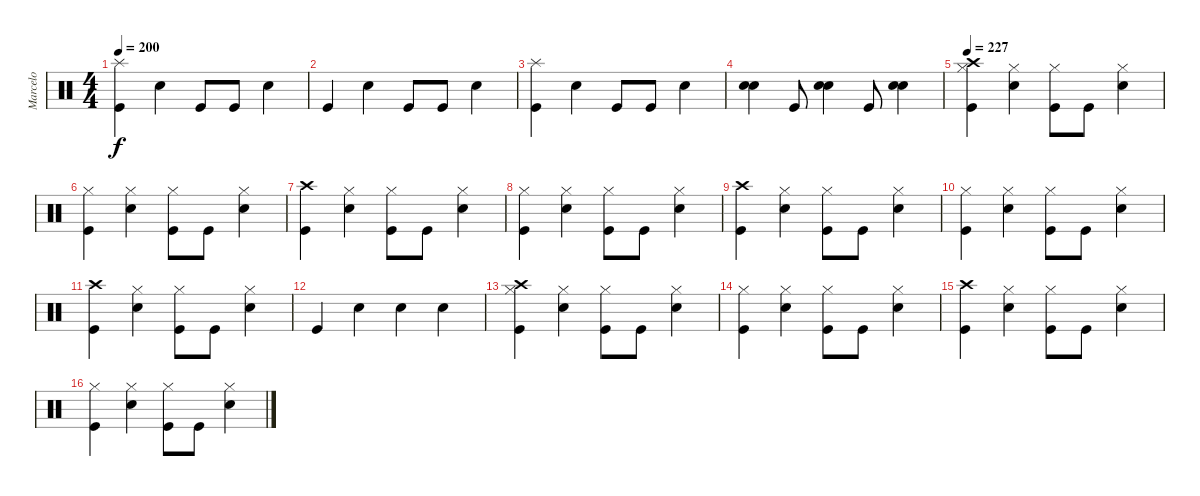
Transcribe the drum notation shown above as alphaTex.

\track ("Marcelo" "Marcelo") {instrument percussion}
\staff {score}
\articulation defaults
\ts (4 4)
\tempo 200
\clef neutral
\ks c
("Splash (hit)" "Kick (hit)").4{dy f} "Snare (hit) 2".4 "Kick (hit)".8 "Kick (hit)".8 "Snare (hit) 2".4 |
"Kick (hit)".4 "Snare (hit) 2".4 "Kick (hit)".8 "Kick (hit)".8 "Snare (hit) 2".4 |
("Splash (hit)" "Kick (hit)").4 "Snare (hit) 2".4 "Kick (hit)".8 "Kick (hit)".8 "Snare (hit) 2".4 |
("Snare (hit) 2" "Snare (hit) 2").4 "Kick (hit)".8 ("Snare (hit) 2" "Snare (hit) 2").4 "Kick (hit)".8 ("Snare (hit) 2" "Snare (hit) 2").4 |
\tempo 227
("Crash high (hit)" "Hi-Hat (closed)" "Kick (hit)").4 ("Hi-Hat (closed)" "Snare (hit) 2").4 ("Hi-Hat (closed)" "Kick (hit)").8 "Kick (hit)".8 ("Hi-Hat (closed)" "Snare (hit) 2").4 |
("Hi-Hat (closed)" "Kick (hit)").4 ("Hi-Hat (closed)" "Snare (hit) 2").4 ("Hi-Hat (closed)" "Kick (hit)").8 "Kick (hit)".8 ("Hi-Hat (closed)" "Snare (hit) 2").4 |
("Crash high (hit)" "Kick (hit)").4 ("Hi-Hat (closed)" "Snare (hit) 2").4 ("Hi-Hat (closed)" "Kick (hit)").8 "Kick (hit)".8 ("Hi-Hat (closed)" "Snare (hit) 2").4 |
("Hi-Hat (closed)" "Kick (hit)").4 ("Hi-Hat (closed)" "Snare (hit) 2").4 ("Hi-Hat (closed)" "Kick (hit)").8 "Kick (hit)".8 ("Hi-Hat (closed)" "Snare (hit) 2").4 |
("Crash high (hit)" "Kick (hit)").4 ("Hi-Hat (closed)" "Snare (hit) 2").4 ("Hi-Hat (closed)" "Kick (hit)").8 "Kick (hit)".8 ("Hi-Hat (closed)" "Snare (hit) 2").4 |
("Hi-Hat (closed)" "Kick (hit)").4 ("Hi-Hat (closed)" "Snare (hit) 2").4 ("Hi-Hat (closed)" "Kick (hit)").8 "Kick (hit)".8 ("Hi-Hat (closed)" "Snare (hit) 2").4 |
("Crash high (hit)" "Kick (hit)").4 ("Hi-Hat (closed)" "Snare (hit) 2").4 ("Hi-Hat (closed)" "Kick (hit)").8 "Kick (hit)".8 ("Hi-Hat (closed)" "Snare (hit) 2").4 |
"Kick (hit)".4 "Snare (hit) 2".4 "Snare (hit) 2".4 "Snare (hit) 2".4 |
("Crash high (hit)" "Hi-Hat (closed)" "Kick (hit)").4 ("Hi-Hat (closed)" "Snare (hit) 2").4 ("Hi-Hat (closed)" "Kick (hit)").8 "Kick (hit)".8 ("Hi-Hat (closed)" "Snare (hit) 2").4 |
("Hi-Hat (closed)" "Kick (hit)").4 ("Hi-Hat (closed)" "Snare (hit) 2").4 ("Hi-Hat (closed)" "Kick (hit)").8 "Kick (hit)".8 ("Hi-Hat (closed)" "Snare (hit) 2").4 |
("Crash high (hit)" "Kick (hit)").4 ("Hi-Hat (closed)" "Snare (hit) 2").4 ("Hi-Hat (closed)" "Kick (hit)").8 "Kick (hit)".8 ("Hi-Hat (closed)" "Snare (hit) 2").4 |
("Hi-Hat (closed)" "Kick (hit)").4 ("Hi-Hat (closed)" "Snare (hit) 2").4 ("Hi-Hat (closed)" "Kick (hit)").8 "Kick (hit)".8 ("Hi-Hat (closed)" "Snare (hit) 2").4
